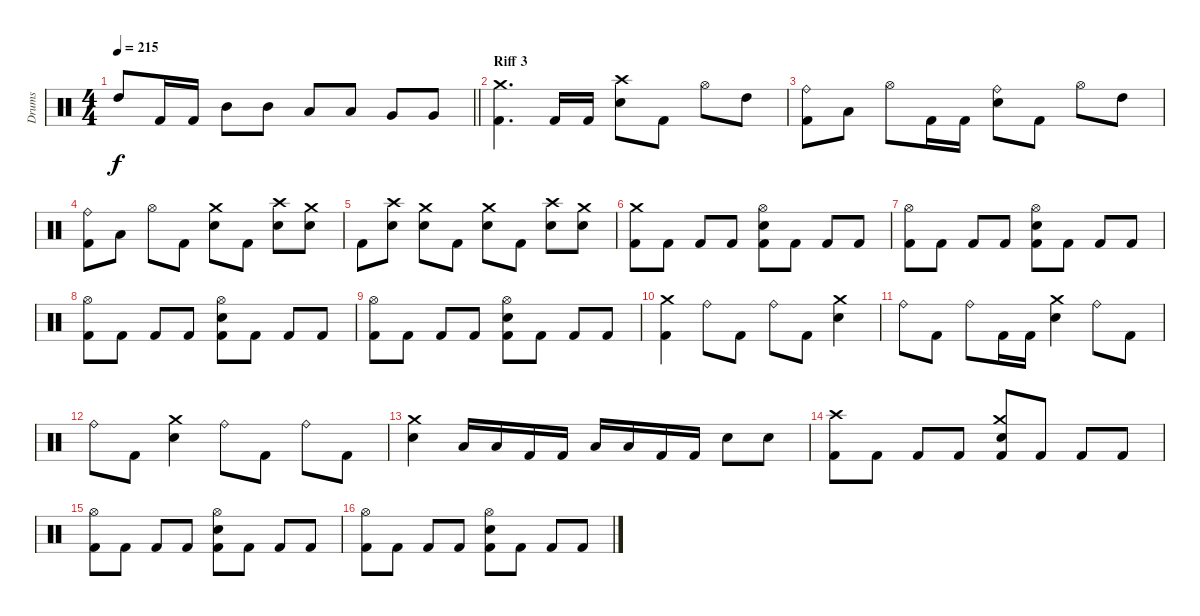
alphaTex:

\track ("Drums" "Drums") {instrument percussion}
\staff {score}
\articulation defaults
\ts (4 4)
\tempo 215
\clef neutral
\barLineRight lightlight
\ks c "High Tom (hit)".8{dy f} "Kick (hit) 2".16 "Kick (hit) 2".16 "Mid Tom (hit)".8 "Mid Tom (hit)".8 "Low Tom (hit)".8 "Low Tom (hit)".8 "Very Low Tom (hit)".8 "Very Low Tom (hit)".8
|
\section ("" "Riff 3")
("Crash medium (hit)" "Kick (hit) 2").4{d} "Kick (hit) 2".16 "Kick (hit) 2".16 ("Electric Snare (hit)" "Crash high (hit)").8 "Kick (hit) 2".8 "Hi-Hat (open)".8 "High Tom (hit)".8 |
("Kick (hit) 2" "Ride (bell)").8 "Low Tom (hit)".8 "Hi-Hat (open)".8 "Kick (hit) 2".16 "Kick (hit) 2".16 ("Electric Snare (hit)" "Ride (bell)").8 "Kick (hit) 2".8 "Hi-Hat (open)".8 "High Tom (hit)".8 |
("Ride (bell)" "Kick (hit) 2").8 "Low Tom (hit)".8 "Hi-Hat (open)".8 "Kick (hit) 2".8 ("Electric Snare (hit)" "Crash medium (hit)").8 "Kick (hit) 2".8 ("Electric Snare (hit)" "Crash high (hit)").8 ("Electric Snare (hit)" "Crash medium (hit)").8 |
"Kick (hit) 2".8 ("Electric Snare (hit)" "Crash high (hit)").8 ("Electric Snare (hit)" "Crash medium (hit)").8 "Kick (hit) 2".8 ("Electric Snare (hit)" "Crash medium (hit)").8 "Kick (hit) 2".8 ("Electric Snare (hit)" "Crash high (hit)").8 ("Electric Snare (hit)" "Crash medium (hit)").8 |
("Kick (hit) 2" "Crash medium (hit)").8 "Kick (hit) 2".8 "Kick (hit) 2".8 "Kick (hit) 2".8 ("Kick (hit) 2" "Electric Snare (hit)" "Hi-Hat (open)").8 "Kick (hit) 2".8 "Kick (hit) 2".8 "Kick (hit) 2".8 |
("Kick (hit) 2" "Hi-Hat (open)").8 "Kick (hit) 2".8 "Kick (hit) 2".8 "Kick (hit) 2".8 ("Kick (hit) 2" "Electric Snare (hit)" "Hi-Hat (open)").8 "Kick (hit) 2".8 "Kick (hit) 2".8 "Kick (hit) 2".8 |
("Kick (hit) 2" "Hi-Hat (open)").8 "Kick (hit) 2".8 "Kick (hit) 2".8 "Kick (hit) 2".8 ("Kick (hit) 2" "Electric Snare (hit)" "Hi-Hat (open)").8 "Kick (hit) 2".8 "Kick (hit) 2".8 "Kick (hit) 2".8 |
("Kick (hit) 2" "Hi-Hat (open)").8 "Kick (hit) 2".8 "Kick (hit) 2".8 "Kick (hit) 2".8 ("Kick (hit) 2" "Electric Snare (hit)" "Hi-Hat (open)").8 "Kick (hit) 2".8 "Kick (hit) 2".8 "Kick (hit) 2".8 |
("Crash medium (hit)" "Kick (hit) 2").4 "Ride (bell)".8 "Kick (hit) 2".8 "Ride (bell)".8 "Kick (hit) 2".8 ("Electric Snare (hit)" "Crash medium (hit)").4 |
"Ride (bell)".8 "Kick (hit) 2".8 "Ride (bell)".8 "Kick (hit) 2".16 "Kick (hit) 2".16 ("Crash medium (hit)" "Electric Snare (hit)").4 "Ride (bell)".8 "Kick (hit) 2".8 |
"Ride (bell)".8 "Kick (hit) 2".8 ("Crash medium (hit)" "Electric Snare (hit)").4 "Ride (bell)".8 "Kick (hit) 2".8 "Ride (bell)".8 "Kick (hit) 2".8 |
("Electric Snare (hit)" "Crash medium (hit)").4 "Low Tom (hit)".16 "Low Tom (hit)".16 "Kick (hit) 2".16 "Kick (hit) 2".16 "Low Tom (hit)".16 "Low Tom (hit)".16 "Kick (hit) 2".16 "Kick (hit) 2".16 "Electric Snare (hit)".8 "Electric Snare (hit)".8 |
("Kick (hit) 2" "Crash high (hit)").8 "Kick (hit) 2".8 "Kick (hit) 2".8 "Kick (hit) 2".8 ("Kick (hit) 2" "Electric Snare (hit)" "Crash medium (hit)").8 "Kick (hit) 2".8 "Kick (hit) 2".8 "Kick (hit) 2".8 |
("Kick (hit) 2" "Hi-Hat (open)").8 "Kick (hit) 2".8 "Kick (hit) 2".8 "Kick (hit) 2".8 ("Kick (hit) 2" "Electric Snare (hit)" "Hi-Hat (open)").8 "Kick (hit) 2".8 "Kick (hit) 2".8 "Kick (hit) 2".8 |
("Kick (hit) 2" "Hi-Hat (open)").8 "Kick (hit) 2".8 "Kick (hit) 2".8 "Kick (hit) 2".8 ("Kick (hit) 2" "Electric Snare (hit)" "Hi-Hat (open)").8 "Kick (hit) 2".8 "Kick (hit) 2".8 "Kick (hit) 2".8
